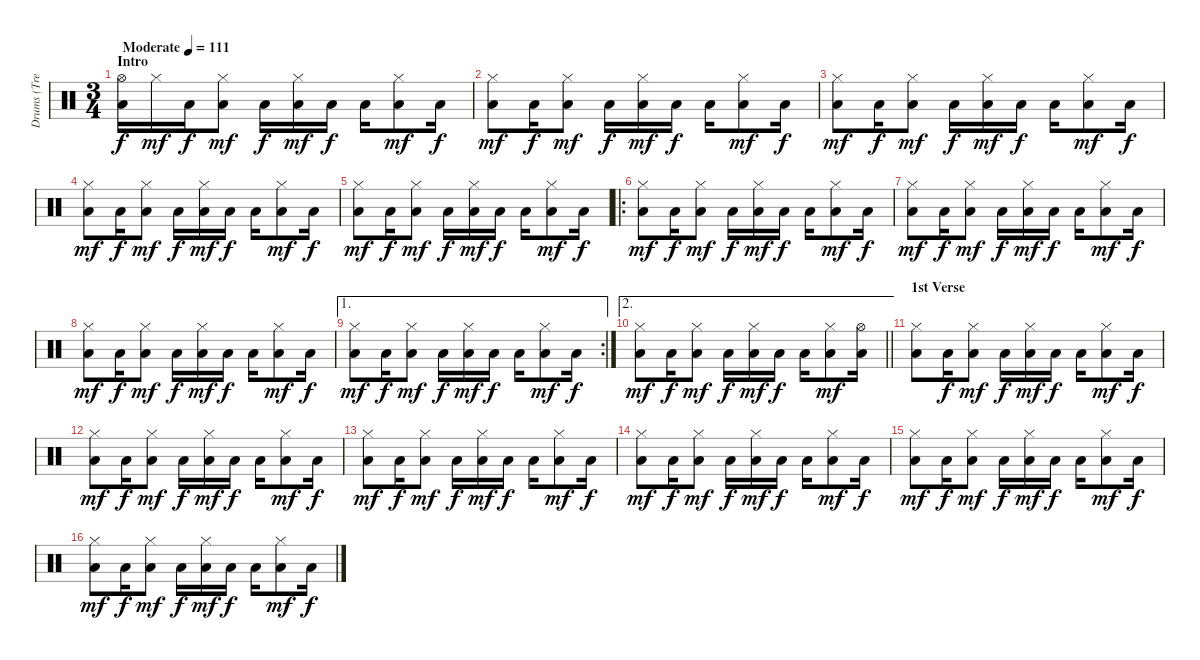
\track ("Drums (Tre Cool)" "Drums (Tre") {instrument percussion}
\staff {score}
\articulation defaults
\ts (3 4)
\section ("" "Intro")
\tempo (111 "Moderate")
\clef neutral
\ks c
("Hi-Hat (open)" "Low Floor Tom (hit)").16{dy f} "Hi-Hat (closed)".16{dy mf} "Low Floor Tom (hit)".16{dy f} ("Hi-Hat (closed)" "Low Tom (hit)").8{dy mf} "Low Tom (hit)".16{dy f} ("Hi-Hat (closed)" "Low Floor Tom (hit)").16{dy mf} "Low Floor Tom (hit)".16{dy f} "Low Floor Tom (hit)".16 ("Hi-Hat (closed)" "Low Tom (hit)").8{dy mf} "Low Tom (hit)".16{dy f} |
("Hi-Hat (closed)" "Low Floor Tom (hit)").8{dy mf} "Low Floor Tom (hit)".16{dy f} ("Hi-Hat (closed)" "Low Tom (hit)").8{dy mf} "Low Tom (hit)".16{dy f} ("Hi-Hat (closed)" "Low Floor Tom (hit)").16{dy mf} "Low Floor Tom (hit)".16{dy f} "Low Floor Tom (hit)".16 ("Hi-Hat (closed)" "Low Tom (hit)").8{dy mf} "Low Tom (hit)".16{dy f} |
("Hi-Hat (closed)" "Low Floor Tom (hit)").8{dy mf} "Low Floor Tom (hit)".16{dy f} ("Hi-Hat (closed)" "Low Tom (hit)").8{dy mf} "Low Tom (hit)".16{dy f} ("Hi-Hat (closed)" "Low Floor Tom (hit)").16{dy mf} "Low Floor Tom (hit)".16{dy f} "Low Floor Tom (hit)".16 ("Hi-Hat (closed)" "Low Tom (hit)").8{dy mf} "Low Tom (hit)".16{dy f} |
("Hi-Hat (closed)" "Low Floor Tom (hit)").8{dy mf} "Low Floor Tom (hit)".16{dy f} ("Hi-Hat (closed)" "Low Tom (hit)").8{dy mf} "Low Tom (hit)".16{dy f} ("Hi-Hat (closed)" "Low Floor Tom (hit)").16{dy mf} "Low Floor Tom (hit)".16{dy f} "Low Floor Tom (hit)".16 ("Hi-Hat (closed)" "Low Tom (hit)").8{dy mf} "Low Tom (hit)".16{dy f} |
("Hi-Hat (closed)" "Low Floor Tom (hit)").8{dy mf} "Low Floor Tom (hit)".16{dy f} ("Hi-Hat (closed)" "Low Tom (hit)").8{dy mf} "Low Tom (hit)".16{dy f} ("Hi-Hat (closed)" "Low Floor Tom (hit)").16{dy mf} "Low Floor Tom (hit)".16{dy f} "Low Floor Tom (hit)".16 ("Hi-Hat (closed)" "Low Tom (hit)").8{dy mf} "Low Tom (hit)".16{dy f} |
\ro
("Hi-Hat (closed)" "Low Floor Tom (hit)").8{dy mf} "Low Floor Tom (hit)".16{dy f} ("Hi-Hat (closed)" "Low Tom (hit)").8{dy mf} "Low Tom (hit)".16{dy f} ("Hi-Hat (closed)" "Low Floor Tom (hit)").16{dy mf} "Low Floor Tom (hit)".16{dy f} "Low Floor Tom (hit)".16 ("Hi-Hat (closed)" "Low Tom (hit)").8{dy mf} "Low Tom (hit)".16{dy f} |
("Hi-Hat (closed)" "Low Floor Tom (hit)").8{dy mf} "Low Floor Tom (hit)".16{dy f} ("Hi-Hat (closed)" "Low Tom (hit)").8{dy mf} "Low Tom (hit)".16{dy f} ("Hi-Hat (closed)" "Low Floor Tom (hit)").16{dy mf} "Low Floor Tom (hit)".16{dy f} "Low Floor Tom (hit)".16 ("Hi-Hat (closed)" "Low Tom (hit)").8{dy mf} "Low Tom (hit)".16{dy f} |
("Hi-Hat (closed)" "Low Floor Tom (hit)").8{dy mf} "Low Floor Tom (hit)".16{dy f} ("Hi-Hat (closed)" "Low Tom (hit)").8{dy mf} "Low Tom (hit)".16{dy f} ("Hi-Hat (closed)" "Low Floor Tom (hit)").16{dy mf} "Low Floor Tom (hit)".16{dy f} "Low Floor Tom (hit)".16 ("Hi-Hat (closed)" "Low Tom (hit)").8{dy mf} "Low Tom (hit)".16{dy f} |
\ae 1
\rc 2
("Hi-Hat (closed)" "Low Floor Tom (hit)").8{dy mf} "Low Floor Tom (hit)".16{dy f} ("Hi-Hat (closed)" "Low Tom (hit)").8{dy mf} "Low Tom (hit)".16{dy f} ("Hi-Hat (closed)" "Low Floor Tom (hit)").16{dy mf} "Low Floor Tom (hit)".16{dy f} "Low Floor Tom (hit)".16 ("Hi-Hat (closed)" "Low Tom (hit)").8{dy mf} "Low Tom (hit)".16{dy f} |
\ae 2
\barLineRight lightlight
("Hi-Hat (closed)" "Low Floor Tom (hit)").8{dy mf} "Low Floor Tom (hit)".16{dy f} ("Hi-Hat (closed)" "Low Tom (hit)").8{dy mf} "Low Tom (hit)".16{dy f} ("Hi-Hat (closed)" "Low Floor Tom (hit)").16{dy mf} "Low Floor Tom (hit)".16{dy f} "Low Floor Tom (hit)".16 ("Hi-Hat (closed)" "Low Tom (hit)").8{dy mf} ("Hi-Hat (open)" "Low Tom (hit)").16 |
\section ("" "1st Verse")
("Hi-Hat (closed)" "Low Floor Tom (hit)").8 "Low Floor Tom (hit)".16{dy f} ("Hi-Hat (closed)" "Low Tom (hit)").8{dy mf} "Low Tom (hit)".16{dy f} ("Hi-Hat (closed)" "Low Floor Tom (hit)").16{dy mf} "Low Floor Tom (hit)".16{dy f} "Low Floor Tom (hit)".16 ("Hi-Hat (closed)" "Low Tom (hit)").8{dy mf} "Low Tom (hit)".16{dy f} |
("Hi-Hat (closed)" "Low Floor Tom (hit)").8{dy mf} "Low Floor Tom (hit)".16{dy f} ("Hi-Hat (closed)" "Low Tom (hit)").8{dy mf} "Low Tom (hit)".16{dy f} ("Hi-Hat (closed)" "Low Floor Tom (hit)").16{dy mf} "Low Floor Tom (hit)".16{dy f} "Low Floor Tom (hit)".16 ("Hi-Hat (closed)" "Low Tom (hit)").8{dy mf} "Low Tom (hit)".16{dy f} |
("Hi-Hat (closed)" "Low Floor Tom (hit)").8{dy mf} "Low Floor Tom (hit)".16{dy f} ("Hi-Hat (closed)" "Low Tom (hit)").8{dy mf} "Low Tom (hit)".16{dy f} ("Hi-Hat (closed)" "Low Floor Tom (hit)").16{dy mf} "Low Floor Tom (hit)".16{dy f} "Low Floor Tom (hit)".16 ("Hi-Hat (closed)" "Low Tom (hit)").8{dy mf} "Low Tom (hit)".16{dy f} |
("Hi-Hat (closed)" "Low Floor Tom (hit)").8{dy mf} "Low Floor Tom (hit)".16{dy f} ("Hi-Hat (closed)" "Low Tom (hit)").8{dy mf} "Low Tom (hit)".16{dy f} ("Hi-Hat (closed)" "Low Floor Tom (hit)").16{dy mf} "Low Floor Tom (hit)".16{dy f} "Low Floor Tom (hit)".16 ("Hi-Hat (closed)" "Low Tom (hit)").8{dy mf} "Low Tom (hit)".16{dy f} |
("Hi-Hat (closed)" "Low Floor Tom (hit)").8{dy mf} "Low Floor Tom (hit)".16{dy f} ("Hi-Hat (closed)" "Low Tom (hit)").8{dy mf} "Low Tom (hit)".16{dy f} ("Hi-Hat (closed)" "Low Floor Tom (hit)").16{dy mf} "Low Floor Tom (hit)".16{dy f} "Low Floor Tom (hit)".16 ("Hi-Hat (closed)" "Low Tom (hit)").8{dy mf} "Low Tom (hit)".16{dy f} |
("Hi-Hat (closed)" "Low Floor Tom (hit)").8{dy mf} "Low Floor Tom (hit)".16{dy f} ("Hi-Hat (closed)" "Low Tom (hit)").8{dy mf} "Low Tom (hit)".16{dy f} ("Hi-Hat (closed)" "Low Floor Tom (hit)").16{dy mf} "Low Floor Tom (hit)".16{dy f} "Low Floor Tom (hit)".16 ("Hi-Hat (closed)" "Low Tom (hit)").8{dy mf} "Low Tom (hit)".16{dy f}
